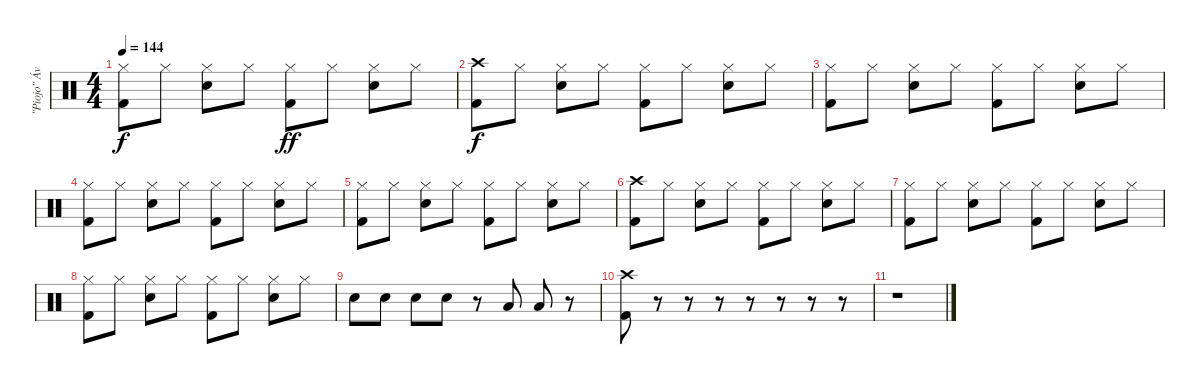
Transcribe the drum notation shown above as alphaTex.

\track ("\"Piojo\" Ávalos" "\"Piojo\" Áv") {instrument percussion}
\staff {score}
\articulation defaults
\ts (4 4)
\tempo 144
\clef neutral
\ks c
("Hi-Hat (closed)" "Kick (hit) 2").8{dy f} "Hi-Hat (closed)".8 ("Hi-Hat (closed)" "Electric Snare (hit)").8 "Hi-Hat (closed)".8 ("Hi-Hat (closed)" "Kick (hit) 2").8{dy ff} "Hi-Hat (closed)".8 ("Hi-Hat (closed)" "Electric Snare (hit)").8 "Hi-Hat (closed)".8 |
("Crash high (hit)" "Kick (hit) 2").8{dy f} "Hi-Hat (closed)".8 ("Hi-Hat (closed)" "Electric Snare (hit)").8 "Hi-Hat (closed)".8 ("Hi-Hat (closed)" "Kick (hit) 2").8 "Hi-Hat (closed)".8 ("Hi-Hat (closed)" "Electric Snare (hit)").8 "Hi-Hat (closed)".8 |
("Hi-Hat (closed)" "Kick (hit) 2").8 "Hi-Hat (closed)".8 ("Hi-Hat (closed)" "Electric Snare (hit)").8 "Hi-Hat (closed)".8 ("Hi-Hat (closed)" "Kick (hit) 2").8 "Hi-Hat (closed)".8 ("Hi-Hat (closed)" "Electric Snare (hit)").8 "Hi-Hat (closed)".8 |
("Hi-Hat (closed)" "Kick (hit) 2").8 "Hi-Hat (closed)".8 ("Hi-Hat (closed)" "Electric Snare (hit)").8 "Hi-Hat (closed)".8 ("Hi-Hat (closed)" "Kick (hit) 2").8 "Hi-Hat (closed)".8 ("Hi-Hat (closed)" "Electric Snare (hit)").8 "Hi-Hat (closed)".8 |
("Hi-Hat (closed)" "Kick (hit) 2").8 "Hi-Hat (closed)".8 ("Hi-Hat (closed)" "Electric Snare (hit)").8 "Hi-Hat (closed)".8 ("Hi-Hat (closed)" "Kick (hit) 2").8 "Hi-Hat (closed)".8 ("Hi-Hat (closed)" "Electric Snare (hit)").8 "Hi-Hat (closed)".8 |
("Crash high (hit)" "Kick (hit) 2").8 "Hi-Hat (closed)".8 ("Hi-Hat (closed)" "Electric Snare (hit)").8 "Hi-Hat (closed)".8 ("Hi-Hat (closed)" "Kick (hit) 2").8 "Hi-Hat (closed)".8 ("Hi-Hat (closed)" "Electric Snare (hit)").8 "Hi-Hat (closed)".8 |
("Hi-Hat (closed)" "Kick (hit) 2").8 "Hi-Hat (closed)".8 ("Hi-Hat (closed)" "Electric Snare (hit)").8 "Hi-Hat (closed)".8 ("Hi-Hat (closed)" "Kick (hit) 2").8 "Hi-Hat (closed)".8 ("Hi-Hat (closed)" "Electric Snare (hit)").8 "Hi-Hat (closed)".8 |
("Hi-Hat (closed)" "Kick (hit) 2").8 "Hi-Hat (closed)".8 ("Hi-Hat (closed)" "Electric Snare (hit)").8 "Hi-Hat (closed)".8 ("Hi-Hat (closed)" "Kick (hit) 2").8 "Hi-Hat (closed)".8 ("Hi-Hat (closed)" "Electric Snare (hit)").8 "Hi-Hat (closed)".8 |
"Electric Snare (hit)".8 "Electric Snare (hit)".8 "Electric Snare (hit)".8 "Electric Snare (hit)".8 r.8 "Low Floor Tom (hit)".8 "Low Floor Tom (hit)".8 r.8 |
("Crash high (hit)" "Kick (hit) 2").8 r.8 r.8 r.8 r.8 r.8 r.8 r.8 |
r.1
